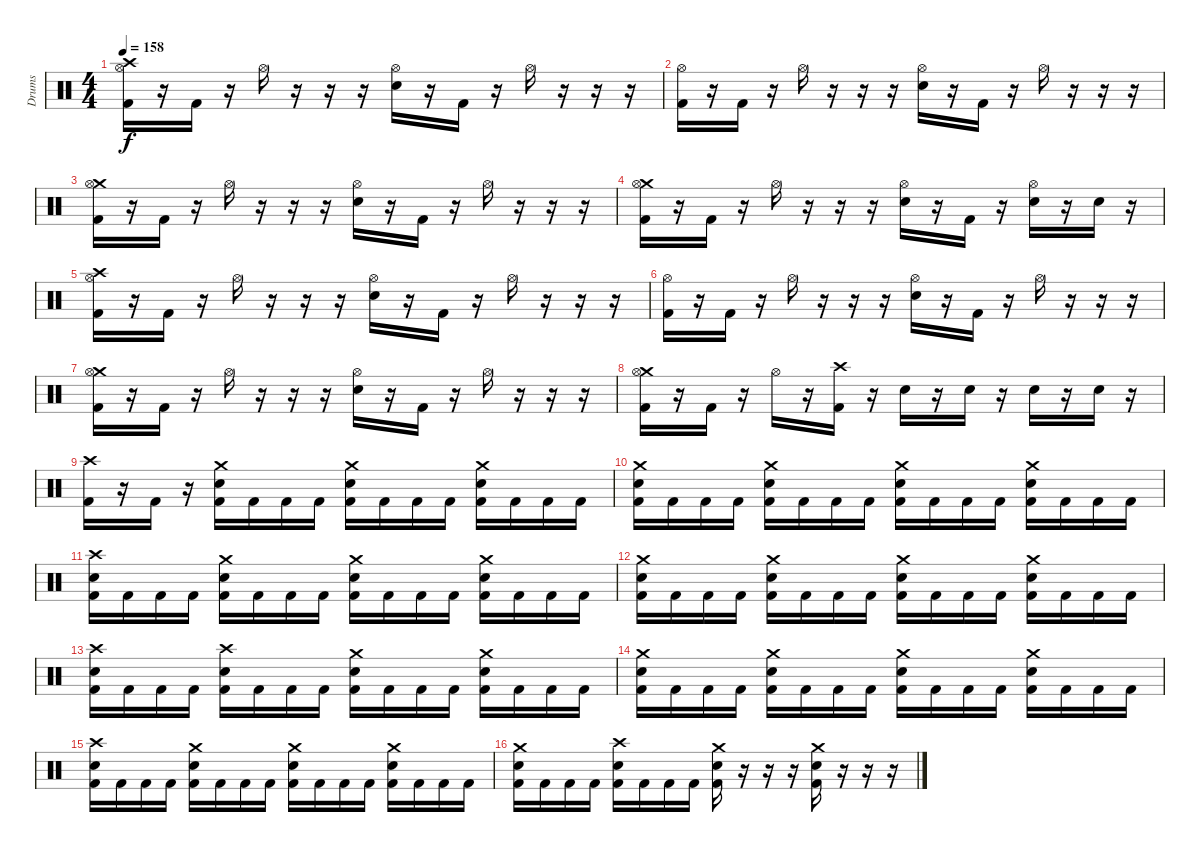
\track ("Drums" "Drums") {instrument percussion}
\staff {score}
\articulation defaults
\ts (4 4)
\tempo 158
\clef neutral
\ks c
("Crash high (hit)" "Hi-Hat (open)" "Kick (hit) 2").16{dy f} r.16 "Kick (hit) 2".16 r.16 "Hi-Hat (open)".16 r.16 r.16 r.16 ("Hi-Hat (open)" "Snare (hit) 2").16 r.16 "Kick (hit) 2".16 r.16 "Hi-Hat (open)".16 r.16 r.16 r.16 |
("Hi-Hat (open)" "Kick (hit) 2").16 r.16 "Kick (hit) 2".16 r.16 "Hi-Hat (open)".16 r.16 r.16 r.16 ("Hi-Hat (open)" "Snare (hit) 2").16 r.16 "Kick (hit) 2".16 r.16 "Hi-Hat (open)".16 r.16 r.16 r.16 |
("Crash medium (hit)" "Hi-Hat (open)" "Kick (hit) 2").16 r.16 "Kick (hit) 2".16 r.16 "Hi-Hat (open)".16 r.16 r.16 r.16 ("Hi-Hat (open)" "Snare (hit) 2").16 r.16 "Kick (hit) 2".16 r.16 "Hi-Hat (open)".16 r.16 r.16 r.16 |
("Crash medium (hit)" "Hi-Hat (open)" "Kick (hit) 2").16 r.16 "Kick (hit) 2".16 r.16 "Hi-Hat (open)".16 r.16 r.16 r.16 ("Hi-Hat (open)" "Snare (hit) 2").16 r.16 "Kick (hit) 2".16 r.16 ("Hi-Hat (open)" "Snare (hit) 2").16 r.16 "Snare (hit) 2".16 r.16 |
("Crash high (hit)" "Hi-Hat (open)" "Kick (hit) 2").16 r.16 "Kick (hit) 2".16 r.16 "Hi-Hat (open)".16 r.16 r.16 r.16 ("Hi-Hat (open)" "Snare (hit) 2").16 r.16 "Kick (hit) 2".16 r.16 "Hi-Hat (open)".16 r.16 r.16 r.16 |
("Hi-Hat (open)" "Kick (hit) 2").16 r.16 "Kick (hit) 2".16 r.16 "Hi-Hat (open)".16 r.16 r.16 r.16 ("Hi-Hat (open)" "Snare (hit) 2").16 r.16 "Kick (hit) 2".16 r.16 "Hi-Hat (open)".16 r.16 r.16 r.16 |
("Crash medium (hit)" "Hi-Hat (open)" "Kick (hit) 2").16 r.16 "Kick (hit) 2".16 r.16 "Hi-Hat (open)".16 r.16 r.16 r.16 ("Hi-Hat (open)" "Snare (hit) 2").16 r.16 "Kick (hit) 2".16 r.16 "Hi-Hat (open)".16 r.16 r.16 r.16 |
("Crash medium (hit)" "Hi-Hat (open)" "Kick (hit) 2").16 r.16 "Kick (hit) 2".16 r.16 "Hi-Hat (open)".16 r.16 ("Crash high (hit)" "Kick (hit) 2").16 r.16 "Snare (hit) 2".16 r.16 "Snare (hit) 2".16 r.16 "Snare (hit) 2".16 r.16 "Snare (hit) 2".16 r.16 |
("Crash high (hit)" "Kick (hit) 2").16 r.16 "Kick (hit) 2".16 r.16 ("Crash medium (hit)" "Snare (hit) 2" "Kick (hit) 2").16 "Kick (hit) 2".16 "Kick (hit) 2".16 "Kick (hit) 2".16 ("Crash medium (hit)" "Snare (hit) 2" "Kick (hit) 2").16 "Kick (hit) 2".16 "Kick (hit) 2".16 "Kick (hit) 2".16 ("Crash medium (hit)" "Snare (hit) 2" "Kick (hit) 2").16 "Kick (hit) 2".16 "Kick (hit) 2".16 "Kick (hit) 2".16 |
("Crash medium (hit)" "Snare (hit) 2" "Kick (hit) 2").16 "Kick (hit) 2".16 "Kick (hit) 2".16 "Kick (hit) 2".16 ("Crash medium (hit)" "Snare (hit) 2" "Kick (hit) 2").16 "Kick (hit) 2".16 "Kick (hit) 2".16 "Kick (hit) 2".16 ("Crash medium (hit)" "Snare (hit) 2" "Kick (hit) 2").16 "Kick (hit) 2".16 "Kick (hit) 2".16 "Kick (hit) 2".16 ("Crash medium (hit)" "Snare (hit) 2" "Kick (hit) 2").16 "Kick (hit) 2".16 "Kick (hit) 2".16 "Kick (hit) 2".16 |
("Crash high (hit)" "Snare (hit) 2" "Kick (hit) 2").16 "Kick (hit) 2".16 "Kick (hit) 2".16 "Kick (hit) 2".16 ("Crash medium (hit)" "Snare (hit) 2" "Kick (hit) 2").16 "Kick (hit) 2".16 "Kick (hit) 2".16 "Kick (hit) 2".16 ("Crash medium (hit)" "Snare (hit) 2" "Kick (hit) 2").16 "Kick (hit) 2".16 "Kick (hit) 2".16 "Kick (hit) 2".16 ("Crash medium (hit)" "Snare (hit) 2" "Kick (hit) 2").16 "Kick (hit) 2".16 "Kick (hit) 2".16 "Kick (hit) 2".16 |
("Crash medium (hit)" "Snare (hit) 2" "Kick (hit) 2").16 "Kick (hit) 2".16 "Kick (hit) 2".16 "Kick (hit) 2".16 ("Crash medium (hit)" "Snare (hit) 2" "Kick (hit) 2").16 "Kick (hit) 2".16 "Kick (hit) 2".16 "Kick (hit) 2".16 ("Crash medium (hit)" "Snare (hit) 2" "Kick (hit) 2").16 "Kick (hit) 2".16 "Kick (hit) 2".16 "Kick (hit) 2".16 ("Crash medium (hit)" "Snare (hit) 2" "Kick (hit) 2").16 "Kick (hit) 2".16 "Kick (hit) 2".16 "Kick (hit) 2".16 |
("Crash high (hit)" "Snare (hit) 2" "Kick (hit) 2").16 "Kick (hit) 2".16 "Kick (hit) 2".16 "Kick (hit) 2".16 ("Crash high (hit)" "Snare (hit) 2" "Kick (hit) 2").16 "Kick (hit) 2".16 "Kick (hit) 2".16 "Kick (hit) 2".16 ("Crash medium (hit)" "Snare (hit) 2" "Kick (hit) 2").16 "Kick (hit) 2".16 "Kick (hit) 2".16 "Kick (hit) 2".16 ("Crash medium (hit)" "Snare (hit) 2" "Kick (hit) 2").16 "Kick (hit) 2".16 "Kick (hit) 2".16 "Kick (hit) 2".16 |
("Crash medium (hit)" "Snare (hit) 2" "Kick (hit) 2").16 "Kick (hit) 2".16 "Kick (hit) 2".16 "Kick (hit) 2".16 ("Crash medium (hit)" "Snare (hit) 2" "Kick (hit) 2").16 "Kick (hit) 2".16 "Kick (hit) 2".16 "Kick (hit) 2".16 ("Crash medium (hit)" "Snare (hit) 2" "Kick (hit) 2").16 "Kick (hit) 2".16 "Kick (hit) 2".16 "Kick (hit) 2".16 ("Crash medium (hit)" "Snare (hit) 2" "Kick (hit) 2").16 "Kick (hit) 2".16 "Kick (hit) 2".16 "Kick (hit) 2".16 |
("Crash high (hit)" "Snare (hit) 2" "Kick (hit) 2").16 "Kick (hit) 2".16 "Kick (hit) 2".16 "Kick (hit) 2".16 ("Crash medium (hit)" "Snare (hit) 2" "Kick (hit) 2").16 "Kick (hit) 2".16 "Kick (hit) 2".16 "Kick (hit) 2".16 ("Crash medium (hit)" "Snare (hit) 2" "Kick (hit) 2").16 "Kick (hit) 2".16 "Kick (hit) 2".16 "Kick (hit) 2".16 ("Crash medium (hit)" "Snare (hit) 2" "Kick (hit) 2").16 "Kick (hit) 2".16 "Kick (hit) 2".16 "Kick (hit) 2".16 |
("Crash medium (hit)" "Snare (hit) 2" "Kick (hit) 2").16 "Kick (hit) 2".16 "Kick (hit) 2".16 "Kick (hit) 2".16 ("Crash high (hit)" "Snare (hit) 2" "Kick (hit) 2").16 "Kick (hit) 2".16 "Kick (hit) 2".16 "Kick (hit) 2".16 ("Crash medium (hit)" "Snare (hit) 2" "Kick (hit) 2").16 r.16 r.16 r.16 ("Crash medium (hit)" "Snare (hit) 2" "Kick (hit) 2").16 r.16 r.16 r.16
